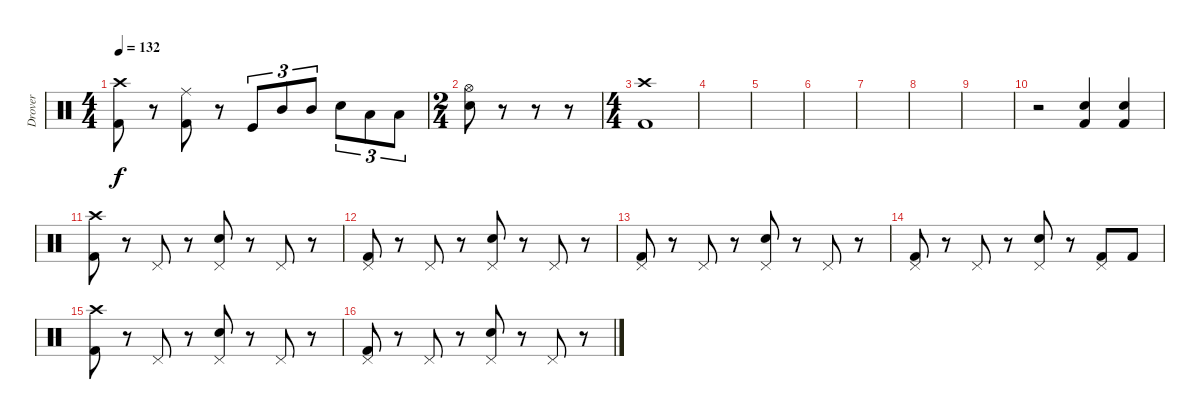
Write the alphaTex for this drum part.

\track ("Drover" "Drover") {instrument percussion}
\staff {score}
\articulation defaults
\ts (4 4)
\tempo 132
\clef neutral
\ks c
("Crash high (hit)" "Kick (hit) 2").8{dy f} r.8 ("Ride (middle)" "Kick (hit) 2").8 r.8 "Kick (hit)".8{tu (3 2)} "Mid Tom (hit)".8{tu (3 2)} "Mid Tom (hit)".8{tu (3 2)} "Snare (hit) 2".8{tu (3 2)} "Low Floor Tom (hit)".8{tu (3 2)} "Low Floor Tom (hit)".8{tu (3 2)} |
\ts (2 4)
("Hi-Hat (open)" "Electric Snare (hit)").8 r.8 r.8 r.8 |
\ts (4 4)
("Crash high (hit)" "Kick (hit) 2").1 |
|
|
|
|
|
|
r.2 ("Electric Snare (hit)" "Kick (hit) 2").4 ("Electric Snare (hit)" "Kick (hit) 2").4 |
("Crash high (hit)" "Kick (hit) 2").8 r.8 "Pedal Hi-Hat (hit)".8 r.8 ("Snare (hit) 2" "Pedal Hi-Hat (hit)").8 r.8 "Pedal Hi-Hat (hit)".8 r.8 |
("Pedal Hi-Hat (hit)" "Kick (hit) 2").8 r.8 "Pedal Hi-Hat (hit)".8 r.8 ("Snare (hit) 2" "Pedal Hi-Hat (hit)").8 r.8 "Pedal Hi-Hat (hit)".8 r.8 |
("Pedal Hi-Hat (hit)" "Kick (hit) 2").8 r.8 "Pedal Hi-Hat (hit)".8 r.8 ("Snare (hit) 2" "Pedal Hi-Hat (hit)").8 r.8 "Pedal Hi-Hat (hit)".8 r.8 |
("Pedal Hi-Hat (hit)" "Kick (hit) 2").8 r.8 "Pedal Hi-Hat (hit)".8 r.8 ("Snare (hit) 2" "Pedal Hi-Hat (hit)").8 r.8 ("Kick (hit) 2" "Pedal Hi-Hat (hit)").8 "Kick (hit) 2".8 |
("Crash high (hit)" "Kick (hit) 2").8 r.8 "Pedal Hi-Hat (hit)".8 r.8 ("Snare (hit) 2" "Pedal Hi-Hat (hit)").8 r.8 "Pedal Hi-Hat (hit)".8 r.8 |
("Pedal Hi-Hat (hit)" "Kick (hit) 2").8 r.8 "Pedal Hi-Hat (hit)".8 r.8 ("Snare (hit) 2" "Pedal Hi-Hat (hit)").8 r.8 "Pedal Hi-Hat (hit)".8 r.8
